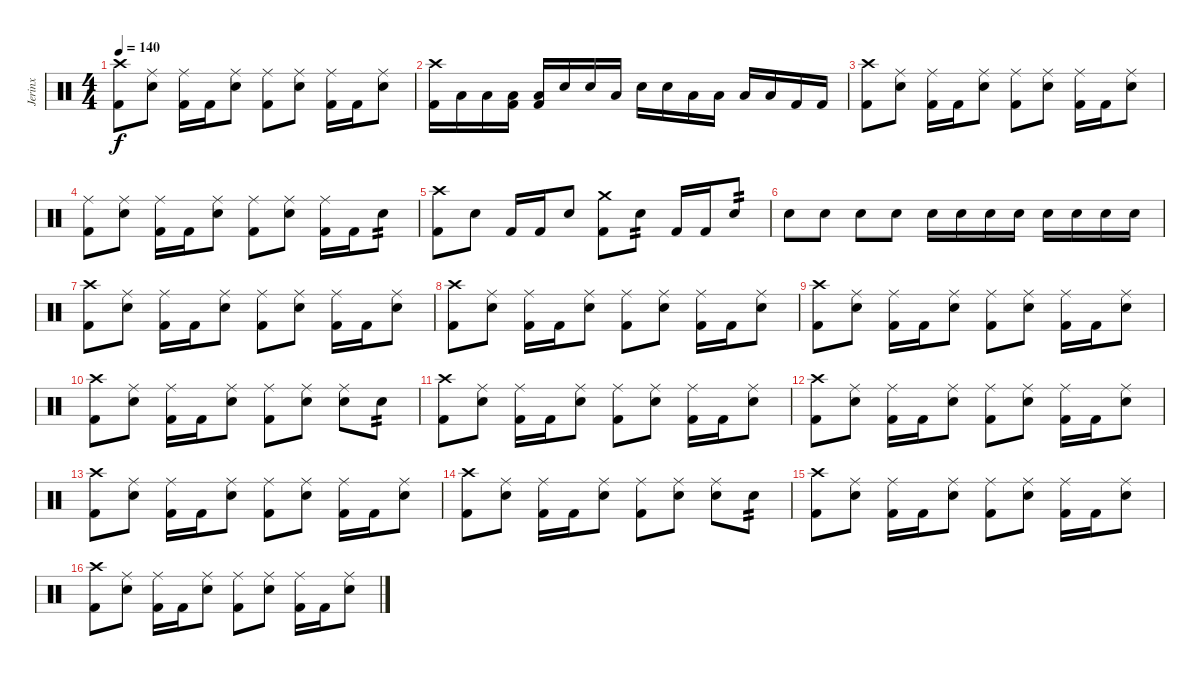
\track ("Jerinx" "Jerinx") {instrument percussion}
\staff {score}
\articulation defaults
\ts (4 4)
\tempo 140
\clef neutral
\ks c
("Crash high (hit)" "Kick (hit) 2").8{dy f} ("Ride (middle)" "Electric Snare (hit)").8 ("Ride (middle)" "Kick (hit) 2").16 "Kick (hit) 2".16 ("Ride (middle)" "Electric Snare (hit)").8 ("Ride (middle)" "Kick (hit) 2").8 ("Ride (middle)" "Electric Snare (hit)").8 ("Ride (middle)" "Kick (hit) 2").16 "Kick (hit) 2".16 ("Ride (middle)" "Electric Snare (hit)").8 |
("Crash high (hit)" "Kick (hit) 2").16 "Low Tom (hit)".16 "Low Tom (hit)".16 ("Low Floor Tom (hit)" "Kick (hit) 2").16 ("Low Floor Tom (hit)" "Kick (hit) 2").16 "Electric Snare (hit)".16 "Electric Snare (hit)".16 "Low Tom (hit)".16 "Electric Snare (hit)".16 "Electric Snare (hit)".16 "Low Tom (hit)".16 "Low Tom (hit)".16 "Low Floor Tom (hit)".16 "Low Floor Tom (hit)".16 "Kick (hit) 2".16 "Kick (hit) 2".16 |
("Crash high (hit)" "Kick (hit) 2").8 ("Ride (middle)" "Electric Snare (hit)").8 ("Ride (middle)" "Kick (hit) 2").16 "Kick (hit) 2".16 ("Ride (middle)" "Electric Snare (hit)").8 ("Ride (middle)" "Kick (hit) 2").8 ("Ride (middle)" "Electric Snare (hit)").8 ("Ride (middle)" "Kick (hit) 2").16 "Kick (hit) 2".16 ("Ride (middle)" "Electric Snare (hit)").8 |
("Ride (middle)" "Kick (hit) 2").8 ("Ride (middle)" "Electric Snare (hit)").8 ("Ride (middle)" "Kick (hit) 2").16 "Kick (hit) 2".16 ("Ride (middle)" "Electric Snare (hit)").8 ("Ride (middle)" "Kick (hit) 2").8 ("Ride (middle)" "Electric Snare (hit)").8 ("Ride (middle)" "Kick (hit) 2").16 "Kick (hit) 2".16 "Electric Snare (hit)".8{tp 2} |
("Crash high (hit)" "Kick (hit) 2").8 "Electric Snare (hit)".8 "Kick (hit) 2".16 "Kick (hit) 2".16 "Electric Snare (hit)".8 ("Crash medium (hit)" "Kick (hit) 2").8 "Electric Snare (hit)".8{tp 2} "Kick (hit) 2".16 "Kick (hit) 2".16 "Electric Snare (hit)".8{tp 2} |
"Electric Snare (hit)".8 "Electric Snare (hit)".8 "Electric Snare (hit)".8 "Electric Snare (hit)".8 "Electric Snare (hit)".16 "Electric Snare (hit)".16 "Electric Snare (hit)".16 "Electric Snare (hit)".16 "Electric Snare (hit)".16 "Electric Snare (hit)".16 "Electric Snare (hit)".16 "Electric Snare (hit)".16 |
("Crash high (hit)" "Kick (hit) 2").8 ("Ride (middle)" "Electric Snare (hit)").8 ("Ride (middle)" "Kick (hit) 2").16 "Kick (hit) 2".16 ("Ride (middle)" "Electric Snare (hit)").8 ("Ride (middle)" "Kick (hit) 2").8 ("Ride (middle)" "Electric Snare (hit)").8 ("Ride (middle)" "Kick (hit) 2").16 "Kick (hit) 2".16 ("Ride (middle)" "Electric Snare (hit)").8 |
("Crash high (hit)" "Kick (hit) 2").8 ("Ride (middle)" "Electric Snare (hit)").8 ("Ride (middle)" "Kick (hit) 2").16 "Kick (hit) 2".16 ("Ride (middle)" "Electric Snare (hit)").8 ("Ride (middle)" "Kick (hit) 2").8 ("Ride (middle)" "Electric Snare (hit)").8 ("Ride (middle)" "Kick (hit) 2").16 "Kick (hit) 2".16 ("Ride (middle)" "Electric Snare (hit)").8 |
("Crash high (hit)" "Kick (hit) 2").8 ("Ride (middle)" "Electric Snare (hit)").8 ("Ride (middle)" "Kick (hit) 2").16 "Kick (hit) 2".16 ("Ride (middle)" "Electric Snare (hit)").8 ("Ride (middle)" "Kick (hit) 2").8 ("Ride (middle)" "Electric Snare (hit)").8 ("Ride (middle)" "Kick (hit) 2").16 "Kick (hit) 2".16 ("Ride (middle)" "Electric Snare (hit)").8 |
("Crash high (hit)" "Kick (hit) 2").8 ("Ride (middle)" "Electric Snare (hit)").8 ("Ride (middle)" "Kick (hit) 2").16 "Kick (hit) 2".16 ("Ride (middle)" "Electric Snare (hit)").8 ("Ride (middle)" "Kick (hit) 2").8 ("Ride (middle)" "Electric Snare (hit)").8 ("Ride (middle)" "Electric Snare (hit)").8 "Electric Snare (hit)".8{tp 2} |
("Crash high (hit)" "Kick (hit) 2").8 ("Ride (middle)" "Electric Snare (hit)").8 ("Ride (middle)" "Kick (hit) 2").16 "Kick (hit) 2".16 ("Ride (middle)" "Electric Snare (hit)").8 ("Ride (middle)" "Kick (hit) 2").8 ("Ride (middle)" "Electric Snare (hit)").8 ("Ride (middle)" "Kick (hit) 2").16 "Kick (hit) 2".16 ("Ride (middle)" "Electric Snare (hit)").8 |
("Crash high (hit)" "Kick (hit) 2").8 ("Ride (middle)" "Electric Snare (hit)").8 ("Ride (middle)" "Kick (hit) 2").16 "Kick (hit) 2".16 ("Ride (middle)" "Electric Snare (hit)").8 ("Ride (middle)" "Kick (hit) 2").8 ("Ride (middle)" "Electric Snare (hit)").8 ("Ride (middle)" "Kick (hit) 2").16 "Kick (hit) 2".16 ("Ride (middle)" "Electric Snare (hit)").8 |
("Crash high (hit)" "Kick (hit) 2").8 ("Ride (middle)" "Electric Snare (hit)").8 ("Ride (middle)" "Kick (hit) 2").16 "Kick (hit) 2".16 ("Ride (middle)" "Electric Snare (hit)").8 ("Ride (middle)" "Kick (hit) 2").8 ("Ride (middle)" "Electric Snare (hit)").8 ("Ride (middle)" "Kick (hit) 2").16 "Kick (hit) 2".16 ("Ride (middle)" "Electric Snare (hit)").8 |
("Crash high (hit)" "Kick (hit) 2").8 ("Ride (middle)" "Electric Snare (hit)").8 ("Ride (middle)" "Kick (hit) 2").16 "Kick (hit) 2".16 ("Ride (middle)" "Electric Snare (hit)").8 ("Ride (middle)" "Kick (hit) 2").8 ("Ride (middle)" "Electric Snare (hit)").8 ("Ride (middle)" "Electric Snare (hit)").8 "Electric Snare (hit)".8{tp 2} |
("Crash high (hit)" "Kick (hit) 2").8 ("Ride (middle)" "Electric Snare (hit)").8 ("Ride (middle)" "Kick (hit) 2").16 "Kick (hit) 2".16 ("Ride (middle)" "Electric Snare (hit)").8 ("Ride (middle)" "Kick (hit) 2").8 ("Ride (middle)" "Electric Snare (hit)").8 ("Ride (middle)" "Kick (hit) 2").16 "Kick (hit) 2".16 ("Ride (middle)" "Electric Snare (hit)").8 |
("Crash high (hit)" "Kick (hit) 2").8 ("Ride (middle)" "Electric Snare (hit)").8 ("Ride (middle)" "Kick (hit) 2").16 "Kick (hit) 2".16 ("Ride (middle)" "Electric Snare (hit)").8 ("Ride (middle)" "Kick (hit) 2").8 ("Ride (middle)" "Electric Snare (hit)").8 ("Ride (middle)" "Kick (hit) 2").16 "Kick (hit) 2".16 ("Ride (middle)" "Electric Snare (hit)").8
